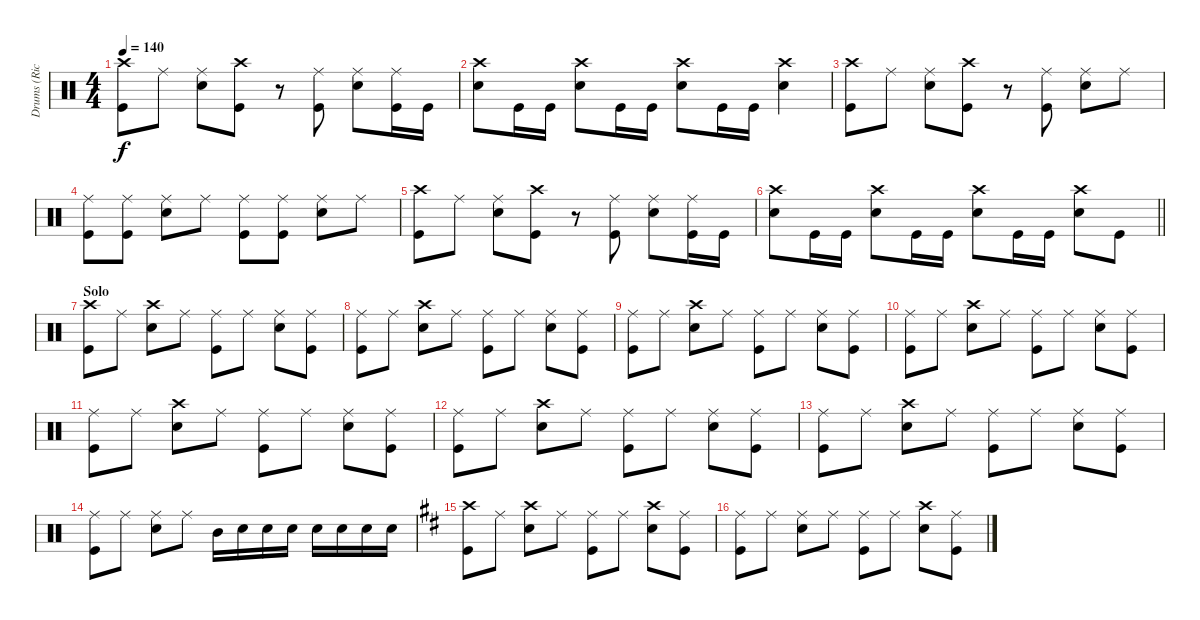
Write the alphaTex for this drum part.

\track ("Drums (Rick)" "Drums (Ric") {instrument percussion}
\staff {score}
\articulation defaults
\ts (4 4)
\tempo 140
\clef neutral
\ks aminor
("Crash high (hit)" "Kick (hit)").8{dy f} "Ride (middle)".8 ("Ride (middle)" "Snare (hit) 2").8 ("Crash high (hit)" "Kick (hit)").8 r.8 ("Ride (middle)" "Kick (hit)").8 ("Ride (middle)" "Snare (hit) 2").8 ("Ride (middle)" "Kick (hit)").16 "Kick (hit)".16 |
("Crash high (hit)" "Snare (hit) 2").8 "Kick (hit)".16 "Kick (hit)".16 ("Crash high (hit)" "Snare (hit) 2").8 "Kick (hit)".16 "Kick (hit)".16 ("Crash high (hit)" "Snare (hit) 2").8 "Kick (hit)".16 "Kick (hit)".16 ("Crash high (hit)" "Snare (hit) 2").4 |
("Crash high (hit)" "Kick (hit)").8 "Ride (middle)".8 ("Ride (middle)" "Snare (hit) 2").8 ("Crash high (hit)" "Kick (hit)").8 r.8 ("Ride (middle)" "Kick (hit)").8 ("Ride (middle)" "Snare (hit) 2").8 "Ride (middle)".8 |
("Ride (middle)" "Kick (hit)").8 ("Ride (middle)" "Kick (hit)").8 ("Ride (middle)" "Snare (hit) 2").8 "Ride (middle)".8 ("Ride (middle)" "Kick (hit)").8 ("Ride (middle)" "Kick (hit)").8 ("Ride (middle)" "Snare (hit) 2").8 "Ride (middle)".8 |
("Crash high (hit)" "Kick (hit)").8 "Ride (middle)".8 ("Ride (middle)" "Snare (hit) 2").8 ("Crash high (hit)" "Kick (hit)").8 r.8 ("Ride (middle)" "Kick (hit)").8 ("Ride (middle)" "Snare (hit) 2").8 ("Ride (middle)" "Kick (hit)").16 "Kick (hit)".16 |
\barLineRight lightlight
("Crash high (hit)" "Snare (hit) 2").8 "Kick (hit)".16 "Kick (hit)".16 ("Crash high (hit)" "Snare (hit) 2").8 "Kick (hit)".16 "Kick (hit)".16 ("Crash high (hit)" "Snare (hit) 2").8 "Kick (hit)".16 "Kick (hit)".16 ("Crash high (hit)" "Snare (hit) 2").8 "Kick (hit)".8 |
\section ("" "Solo")
("Crash high (hit)" "Kick (hit)").8 "Ride (middle)".8 ("Crash high (hit)" "Snare (hit) 2").8 "Ride (middle)".8 ("Ride (middle)" "Kick (hit)").8 "Ride (middle)".8 ("Ride (middle)" "Snare (hit) 2").8 ("Ride (middle)" "Kick (hit)").8 |
("Ride (middle)" "Kick (hit)").8 "Ride (middle)".8 ("Crash high (hit)" "Snare (hit) 2").8 "Ride (middle)".8 ("Ride (middle)" "Kick (hit)").8 "Ride (middle)".8 ("Ride (middle)" "Snare (hit) 2").8 ("Ride (middle)" "Kick (hit)").8 |
("Ride (middle)" "Kick (hit)").8 "Ride (middle)".8 ("Crash high (hit)" "Snare (hit) 2").8 "Ride (middle)".8 ("Ride (middle)" "Kick (hit)").8 "Ride (middle)".8 ("Ride (middle)" "Snare (hit) 2").8 ("Ride (middle)" "Kick (hit)").8 |
("Ride (middle)" "Kick (hit)").8 "Ride (middle)".8 ("Crash high (hit)" "Snare (hit) 2").8 "Ride (middle)".8 ("Ride (middle)" "Kick (hit)").8 "Ride (middle)".8 ("Ride (middle)" "Snare (hit) 2").8 ("Ride (middle)" "Kick (hit)").8 |
("Ride (middle)" "Kick (hit)").8 "Ride (middle)".8 ("Crash high (hit)" "Snare (hit) 2").8 "Ride (middle)".8 ("Ride (middle)" "Kick (hit)").8 "Ride (middle)".8 ("Ride (middle)" "Snare (hit) 2").8 ("Ride (middle)" "Kick (hit)").8 |
("Ride (middle)" "Kick (hit)").8 "Ride (middle)".8 ("Crash high (hit)" "Snare (hit) 2").8 "Ride (middle)".8 ("Ride (middle)" "Kick (hit)").8 "Ride (middle)".8 ("Ride (middle)" "Snare (hit) 2").8 ("Ride (middle)" "Kick (hit)").8 |
("Ride (middle)" "Kick (hit)").8 "Ride (middle)".8 ("Crash high (hit)" "Snare (hit) 2").8 "Ride (middle)".8 ("Ride (middle)" "Kick (hit)").8 "Ride (middle)".8 ("Ride (middle)" "Snare (hit) 2").8 ("Ride (middle)" "Kick (hit)").8 |
("Ride (middle)" "Kick (hit)").8 "Ride (middle)".8 ("Ride (middle)" "Snare (hit) 2").8 "Ride (middle)".8 "Mid Tom (hit)".16 "Snare (hit) 2".16 "Snare (hit) 2".16 "Snare (hit) 2".16 "Snare (hit) 2".16 "Snare (hit) 2".16 "Snare (hit) 2".16 "Snare (hit) 2".16 |
\ks bminor
("Crash high (hit)" "Kick (hit)").8 "Ride (middle)".8 ("Crash high (hit)" "Snare (hit) 2").8 "Ride (middle)".8 ("Ride (middle)" "Kick (hit)").8 "Ride (middle)".8 ("Crash high (hit)" "Snare (hit) 2").8 ("Ride (middle)" "Kick (hit)").8 |
("Ride (middle)" "Kick (hit)").8 "Ride (middle)".8 ("Ride (middle)" "Snare (hit) 2").8 "Ride (middle)".8 ("Ride (middle)" "Kick (hit)").8 "Ride (middle)".8 ("Crash high (hit)" "Snare (hit) 2").8 ("Ride (middle)" "Kick (hit)").8
